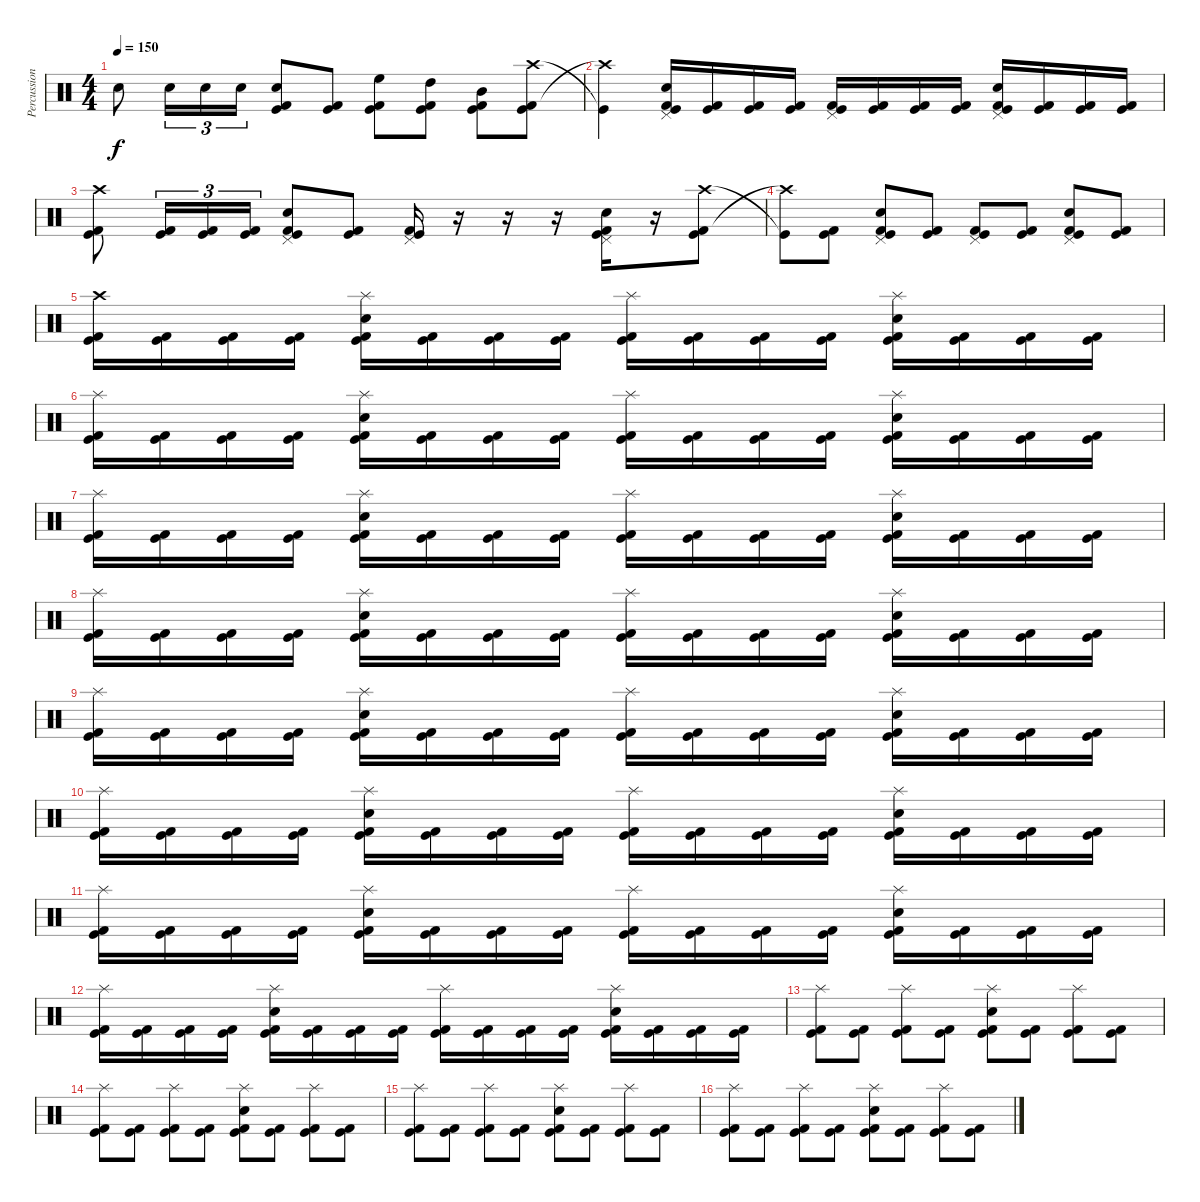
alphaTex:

\track ("Percussion" "Percussion") {instrument percussion}
\staff {score}
\articulation defaults
\ts (4 4)
\tempo 150
\clef neutral
\ks c "Snare (hit) 2".8{dy f} "Snare (hit) 2".16{tu (3 2)} "Snare (hit) 2".16{tu (3 2)} "Snare (hit) 2".16{tu (3 2)}
("Kick (hit) 2" "Snare (hit) 2" "Kick (hit)").8 ("Kick (hit) 2" "Kick (hit)").8 ("Kick (hit) 2" "High Floor Tom (hit)" "Kick (hit)").8 ("Kick (hit) 2" "High Tom (hit)" "Kick (hit)").8 ("Kick (hit) 2" "Mid Tom (hit)" "Kick (hit)").8 ("Kick (hit) 2" "Crash high (hit)" "Kick (hit)").8 |
("Crash high (hit)"{t} "Kick (hit)"{t}).4 ("Kick (hit) 2" "Pedal Hi-Hat (hit)" "Snare (hit) 2" "Kick (hit)").16 ("Kick (hit) 2" "Kick (hit)").16 ("Kick (hit) 2" "Kick (hit)").16 ("Kick (hit) 2" "Kick (hit)").16 ("Kick (hit) 2" "Pedal Hi-Hat (hit)" "Kick (hit)").16 ("Kick (hit) 2" "Kick (hit)").16 ("Kick (hit) 2" "Kick (hit)").16 ("Kick (hit) 2" "Kick (hit)").16 ("Kick (hit) 2" "Pedal Hi-Hat (hit)" "Snare (hit) 2" "Kick (hit)").16 ("Kick (hit) 2" "Kick (hit)").16 ("Kick (hit) 2" "Kick (hit)").16 ("Kick (hit) 2" "Kick (hit)").16 |
("Kick (hit) 2" "Crash high (hit)" "Kick (hit)").8 ("Kick (hit) 2" "Kick (hit)").16{tu (3 2)} ("Kick (hit) 2" "Kick (hit)").16{tu (3 2)} ("Kick (hit) 2" "Kick (hit)").16{tu (3 2)} ("Kick (hit) 2" "Pedal Hi-Hat (hit)" "Snare (hit) 2" "Kick (hit)").8 ("Kick (hit) 2" "Kick (hit)").8 ("Kick (hit) 2" "Pedal Hi-Hat (hit)" "Kick (hit)").16 r.16 r.16 r.16 ("Kick (hit) 2" "Pedal Hi-Hat (hit)" "Snare (hit) 2" "Kick (hit)").16 r.16 ("Kick (hit) 2" "Crash high (hit)" "Kick (hit)").8 |
("Crash high (hit)"{t} "Kick (hit)"{t}).8 ("Kick (hit) 2" "Kick (hit)").8 ("Kick (hit) 2" "Pedal Hi-Hat (hit)" "Snare (hit) 2" "Kick (hit)").8 ("Kick (hit) 2" "Kick (hit)").8 ("Kick (hit) 2" "Pedal Hi-Hat (hit)" "Kick (hit)").8 ("Kick (hit) 2" "Kick (hit)").8 ("Kick (hit) 2" "Pedal Hi-Hat (hit)" "Snare (hit) 2" "Kick (hit)").8 ("Kick (hit) 2" "Kick (hit)").8 |
("Kick (hit) 2" "Crash high (hit)" "Kick (hit)").16 ("Kick (hit) 2" "Kick (hit)").16 ("Kick (hit) 2" "Kick (hit)").16 ("Kick (hit) 2" "Kick (hit)").16 ("Kick (hit) 2" "Splash (hit)" "Snare (hit) 2" "Kick (hit)").16 ("Kick (hit) 2" "Kick (hit)").16 ("Kick (hit) 2" "Kick (hit)").16 ("Kick (hit) 2" "Kick (hit)").16 ("Kick (hit) 2" "Splash (hit)" "Kick (hit)").16 ("Kick (hit) 2" "Kick (hit)").16 ("Kick (hit) 2" "Kick (hit)").16 ("Kick (hit) 2" "Kick (hit)").16 ("Kick (hit) 2" "Splash (hit)" "Snare (hit) 2" "Kick (hit)").16 ("Kick (hit) 2" "Kick (hit)").16 ("Kick (hit) 2" "Kick (hit)").16 ("Kick (hit) 2" "Kick (hit)").16 |
("Kick (hit) 2" "Splash (hit)" "Kick (hit)").16 ("Kick (hit) 2" "Kick (hit)").16 ("Kick (hit) 2" "Kick (hit)").16 ("Kick (hit) 2" "Kick (hit)").16 ("Kick (hit) 2" "Splash (hit)" "Snare (hit) 2" "Kick (hit)").16 ("Kick (hit) 2" "Kick (hit)").16 ("Kick (hit) 2" "Kick (hit)").16 ("Kick (hit) 2" "Kick (hit)").16 ("Kick (hit) 2" "Splash (hit)" "Kick (hit)").16 ("Kick (hit) 2" "Kick (hit)").16 ("Kick (hit) 2" "Kick (hit)").16 ("Kick (hit) 2" "Kick (hit)").16 ("Kick (hit) 2" "Splash (hit)" "Snare (hit) 2" "Kick (hit)").16 ("Kick (hit) 2" "Kick (hit)").16 ("Kick (hit) 2" "Kick (hit)").16 ("Kick (hit) 2" "Kick (hit)").16 |
("Kick (hit) 2" "Splash (hit)" "Kick (hit)").16 ("Kick (hit) 2" "Kick (hit)").16 ("Kick (hit) 2" "Kick (hit)").16 ("Kick (hit) 2" "Kick (hit)").16 ("Kick (hit) 2" "Splash (hit)" "Snare (hit) 2" "Kick (hit)").16 ("Kick (hit) 2" "Kick (hit)").16 ("Kick (hit) 2" "Kick (hit)").16 ("Kick (hit) 2" "Kick (hit)").16 ("Kick (hit) 2" "Splash (hit)" "Kick (hit)").16 ("Kick (hit) 2" "Kick (hit)").16 ("Kick (hit) 2" "Kick (hit)").16 ("Kick (hit) 2" "Kick (hit)").16 ("Kick (hit) 2" "Splash (hit)" "Snare (hit) 2" "Kick (hit)").16 ("Kick (hit) 2" "Kick (hit)").16 ("Kick (hit) 2" "Kick (hit)").16 ("Kick (hit) 2" "Kick (hit)").16 |
("Kick (hit) 2" "Splash (hit)" "Kick (hit)").16 ("Kick (hit) 2" "Kick (hit)").16 ("Kick (hit) 2" "Kick (hit)").16 ("Kick (hit) 2" "Kick (hit)").16 ("Kick (hit) 2" "Splash (hit)" "Snare (hit) 2" "Kick (hit)").16 ("Kick (hit) 2" "Kick (hit)").16 ("Kick (hit) 2" "Kick (hit)").16 ("Kick (hit) 2" "Kick (hit)").16 ("Kick (hit) 2" "Splash (hit)" "Kick (hit)").16 ("Kick (hit) 2" "Kick (hit)").16 ("Kick (hit) 2" "Kick (hit)").16 ("Kick (hit) 2" "Kick (hit)").16 ("Kick (hit) 2" "Splash (hit)" "Snare (hit) 2" "Kick (hit)").16 ("Kick (hit) 2" "Kick (hit)").16 ("Kick (hit) 2" "Kick (hit)").16 ("Kick (hit) 2" "Kick (hit)").16 |
("Kick (hit) 2" "Splash (hit)" "Kick (hit)").16 ("Kick (hit) 2" "Kick (hit)").16 ("Kick (hit) 2" "Kick (hit)").16 ("Kick (hit) 2" "Kick (hit)").16 ("Kick (hit) 2" "Splash (hit)" "Snare (hit) 2" "Kick (hit)").16 ("Kick (hit) 2" "Kick (hit)").16 ("Kick (hit) 2" "Kick (hit)").16 ("Kick (hit) 2" "Kick (hit)").16 ("Kick (hit) 2" "Splash (hit)" "Kick (hit)").16 ("Kick (hit) 2" "Kick (hit)").16 ("Kick (hit) 2" "Kick (hit)").16 ("Kick (hit) 2" "Kick (hit)").16 ("Kick (hit) 2" "Splash (hit)" "Snare (hit) 2" "Kick (hit)").16 ("Kick (hit) 2" "Kick (hit)").16 ("Kick (hit) 2" "Kick (hit)").16 ("Kick (hit) 2" "Kick (hit)").16 |
("Kick (hit) 2" "Splash (hit)" "Kick (hit)").16 ("Kick (hit) 2" "Kick (hit)").16 ("Kick (hit) 2" "Kick (hit)").16 ("Kick (hit) 2" "Kick (hit)").16 ("Kick (hit) 2" "Splash (hit)" "Snare (hit) 2" "Kick (hit)").16 ("Kick (hit) 2" "Kick (hit)").16 ("Kick (hit) 2" "Kick (hit)").16 ("Kick (hit) 2" "Kick (hit)").16 ("Kick (hit) 2" "Splash (hit)" "Kick (hit)").16 ("Kick (hit) 2" "Kick (hit)").16 ("Kick (hit) 2" "Kick (hit)").16 ("Kick (hit) 2" "Kick (hit)").16 ("Kick (hit) 2" "Splash (hit)" "Snare (hit) 2" "Kick (hit)").16 ("Kick (hit) 2" "Kick (hit)").16 ("Kick (hit) 2" "Kick (hit)").16 ("Kick (hit) 2" "Kick (hit)").16 |
("Kick (hit) 2" "Splash (hit)" "Kick (hit)").16 ("Kick (hit) 2" "Kick (hit)").16 ("Kick (hit) 2" "Kick (hit)").16 ("Kick (hit) 2" "Kick (hit)").16 ("Kick (hit) 2" "Splash (hit)" "Snare (hit) 2" "Kick (hit)").16 ("Kick (hit) 2" "Kick (hit)").16 ("Kick (hit) 2" "Kick (hit)").16 ("Kick (hit) 2" "Kick (hit)").16 ("Kick (hit) 2" "Splash (hit)" "Kick (hit)").16 ("Kick (hit) 2" "Kick (hit)").16 ("Kick (hit) 2" "Kick (hit)").16 ("Kick (hit) 2" "Kick (hit)").16 ("Kick (hit) 2" "Splash (hit)" "Snare (hit) 2" "Kick (hit)").16 ("Kick (hit) 2" "Kick (hit)").16 ("Kick (hit) 2" "Kick (hit)").16 ("Kick (hit) 2" "Kick (hit)").16 |
("Kick (hit) 2" "Splash (hit)" "Kick (hit)").16 ("Kick (hit) 2" "Kick (hit)").16 ("Kick (hit) 2" "Kick (hit)").16 ("Kick (hit) 2" "Kick (hit)").16 ("Kick (hit) 2" "Splash (hit)" "Snare (hit) 2" "Kick (hit)").16 ("Kick (hit) 2" "Kick (hit)").16 ("Kick (hit) 2" "Kick (hit)").16 ("Kick (hit) 2" "Kick (hit)").16 ("Kick (hit) 2" "Splash (hit)" "Kick (hit)").16 ("Kick (hit) 2" "Kick (hit)").16 ("Kick (hit) 2" "Kick (hit)").16 ("Kick (hit) 2" "Kick (hit)").16 ("Kick (hit) 2" "Splash (hit)" "Snare (hit) 2" "Kick (hit)").16 ("Kick (hit) 2" "Kick (hit)").16 ("Kick (hit) 2" "Kick (hit)").16 ("Kick (hit) 2" "Kick (hit)").16 |
("Kick (hit) 2" "Splash (hit)" "Kick (hit)").8 ("Kick (hit) 2" "Kick (hit)").8 ("Kick (hit) 2" "Splash (hit)" "Kick (hit)").8 ("Kick (hit) 2" "Kick (hit)").8 ("Kick (hit) 2" "Splash (hit)" "Snare (hit) 2" "Kick (hit)").8 ("Kick (hit) 2" "Kick (hit)").8 ("Kick (hit) 2" "Splash (hit)" "Kick (hit)").8 ("Kick (hit) 2" "Kick (hit)").8 |
("Kick (hit) 2" "Splash (hit)" "Kick (hit)").8 ("Kick (hit) 2" "Kick (hit)").8 ("Kick (hit) 2" "Splash (hit)" "Kick (hit)").8 ("Kick (hit) 2" "Kick (hit)").8 ("Kick (hit) 2" "Splash (hit)" "Snare (hit) 2" "Kick (hit)").8 ("Kick (hit) 2" "Kick (hit)").8 ("Kick (hit) 2" "Splash (hit)" "Kick (hit)").8 ("Kick (hit) 2" "Kick (hit)").8 |
("Kick (hit) 2" "Splash (hit)" "Kick (hit)").8 ("Kick (hit) 2" "Kick (hit)").8 ("Kick (hit) 2" "Splash (hit)" "Kick (hit)").8 ("Kick (hit) 2" "Kick (hit)").8 ("Kick (hit) 2" "Splash (hit)" "Snare (hit) 2" "Kick (hit)").8 ("Kick (hit) 2" "Kick (hit)").8 ("Kick (hit) 2" "Splash (hit)" "Kick (hit)").8 ("Kick (hit) 2" "Kick (hit)").8 |
("Kick (hit) 2" "Splash (hit)" "Kick (hit)").8 ("Kick (hit) 2" "Kick (hit)").8 ("Kick (hit) 2" "Splash (hit)" "Kick (hit)").8 ("Kick (hit) 2" "Kick (hit)").8 ("Kick (hit) 2" "Splash (hit)" "Snare (hit) 2" "Kick (hit)").8 ("Kick (hit) 2" "Kick (hit)").8 ("Kick (hit) 2" "Splash (hit)" "Kick (hit)").8 ("Kick (hit) 2" "Kick (hit)").8
